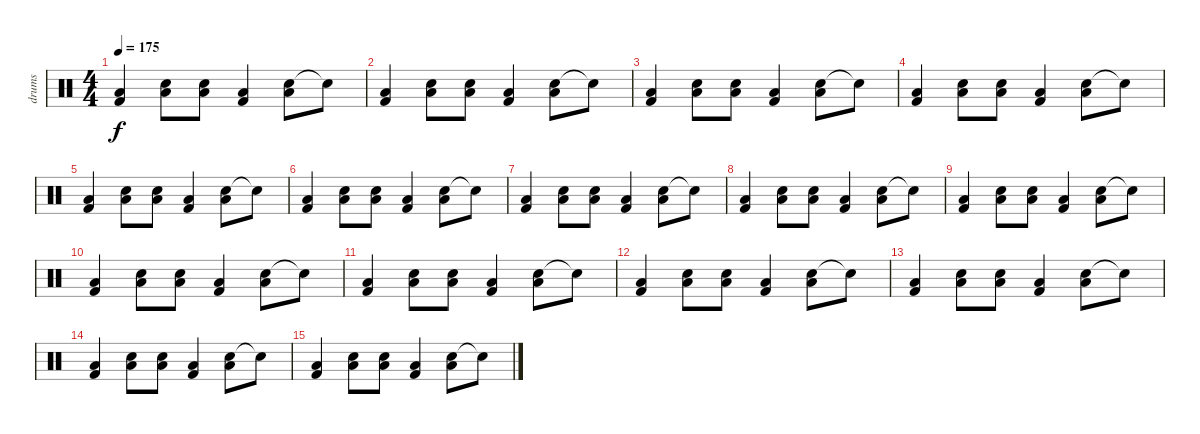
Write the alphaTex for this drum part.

\track ("drums" "drums") {instrument percussion}
\staff {score}
\articulation defaults
\ts (4 4)
\tempo 175
\clef neutral
\ks c
("Kick (hit) 2" "Low Floor Tom (hit)").4{dy f} ("Snare (hit) 2" "Low Floor Tom (hit)").8 ("Snare (hit) 2" "Low Floor Tom (hit)").8 ("Kick (hit) 2" "Low Floor Tom (hit)").4 ("Snare (hit) 2" "Low Floor Tom (hit)").8 "Snare (hit)"{t}.8 |
("Kick (hit) 2" "Low Floor Tom (hit)").4 ("Snare (hit) 2" "Low Floor Tom (hit)").8 ("Snare (hit) 2" "Low Floor Tom (hit)").8 ("Kick (hit) 2" "Low Floor Tom (hit)").4 ("Snare (hit) 2" "Low Floor Tom (hit)").8 "Snare (hit)"{t}.8 |
("Kick (hit) 2" "Low Floor Tom (hit)").4 ("Snare (hit) 2" "Low Floor Tom (hit)").8 ("Snare (hit) 2" "Low Floor Tom (hit)").8 ("Kick (hit) 2" "Low Floor Tom (hit)").4 ("Snare (hit) 2" "Low Floor Tom (hit)").8 "Snare (hit)"{t}.8 |
("Kick (hit) 2" "Low Floor Tom (hit)").4 ("Snare (hit) 2" "Low Floor Tom (hit)").8 ("Snare (hit) 2" "Low Floor Tom (hit)").8 ("Kick (hit) 2" "Low Floor Tom (hit)").4 ("Snare (hit) 2" "Low Floor Tom (hit)").8 "Snare (hit)"{t}.8 |
("Kick (hit) 2" "Low Floor Tom (hit)").4 ("Snare (hit) 2" "Low Floor Tom (hit)").8 ("Snare (hit) 2" "Low Floor Tom (hit)").8 ("Kick (hit) 2" "Low Floor Tom (hit)").4 ("Snare (hit) 2" "Low Floor Tom (hit)").8 "Snare (hit)"{t}.8 |
("Kick (hit) 2" "Low Floor Tom (hit)").4 ("Snare (hit) 2" "Low Floor Tom (hit)").8 ("Snare (hit) 2" "Low Floor Tom (hit)").8 ("Kick (hit) 2" "Low Floor Tom (hit)").4 ("Snare (hit) 2" "Low Floor Tom (hit)").8 "Snare (hit)"{t}.8 |
("Kick (hit) 2" "Low Floor Tom (hit)").4 ("Snare (hit) 2" "Low Floor Tom (hit)").8 ("Snare (hit) 2" "Low Floor Tom (hit)").8 ("Kick (hit) 2" "Low Floor Tom (hit)").4 ("Snare (hit) 2" "Low Floor Tom (hit)").8 "Snare (hit)"{t}.8 |
("Kick (hit) 2" "Low Floor Tom (hit)").4 ("Snare (hit) 2" "Low Floor Tom (hit)").8 ("Snare (hit) 2" "Low Floor Tom (hit)").8 ("Kick (hit) 2" "Low Floor Tom (hit)").4 ("Snare (hit) 2" "Low Floor Tom (hit)").8 "Snare (hit)"{t}.8 |
("Kick (hit) 2" "Low Floor Tom (hit)").4 ("Snare (hit) 2" "Low Floor Tom (hit)").8 ("Snare (hit) 2" "Low Floor Tom (hit)").8 ("Kick (hit) 2" "Low Floor Tom (hit)").4 ("Snare (hit) 2" "Low Floor Tom (hit)").8 "Snare (hit)"{t}.8 |
("Kick (hit) 2" "Low Floor Tom (hit)").4 ("Snare (hit) 2" "Low Floor Tom (hit)").8 ("Snare (hit) 2" "Low Floor Tom (hit)").8 ("Kick (hit) 2" "Low Floor Tom (hit)").4 ("Snare (hit) 2" "Low Floor Tom (hit)").8 "Snare (hit)"{t}.8 |
("Kick (hit) 2" "Low Floor Tom (hit)").4 ("Snare (hit) 2" "Low Floor Tom (hit)").8 ("Snare (hit) 2" "Low Floor Tom (hit)").8 ("Kick (hit) 2" "Low Floor Tom (hit)").4 ("Snare (hit) 2" "Low Floor Tom (hit)").8 "Snare (hit)"{t}.8 |
("Kick (hit) 2" "Low Floor Tom (hit)").4 ("Snare (hit) 2" "Low Floor Tom (hit)").8 ("Snare (hit) 2" "Low Floor Tom (hit)").8 ("Kick (hit) 2" "Low Floor Tom (hit)").4 ("Snare (hit) 2" "Low Floor Tom (hit)").8 "Snare (hit)"{t}.8 |
("Kick (hit) 2" "Low Floor Tom (hit)").4 ("Snare (hit) 2" "Low Floor Tom (hit)").8 ("Snare (hit) 2" "Low Floor Tom (hit)").8 ("Kick (hit) 2" "Low Floor Tom (hit)").4 ("Snare (hit) 2" "Low Floor Tom (hit)").8 "Snare (hit)"{t}.8 |
("Kick (hit) 2" "Low Floor Tom (hit)").4 ("Snare (hit) 2" "Low Floor Tom (hit)").8 ("Snare (hit) 2" "Low Floor Tom (hit)").8 ("Kick (hit) 2" "Low Floor Tom (hit)").4 ("Snare (hit) 2" "Low Floor Tom (hit)").8 "Snare (hit)"{t}.8 |
("Kick (hit) 2" "Low Floor Tom (hit)").4 ("Snare (hit) 2" "Low Floor Tom (hit)").8 ("Snare (hit) 2" "Low Floor Tom (hit)").8 ("Kick (hit) 2" "Low Floor Tom (hit)").4 ("Snare (hit) 2" "Low Floor Tom (hit)").8 "Snare (hit)"{t}.8
